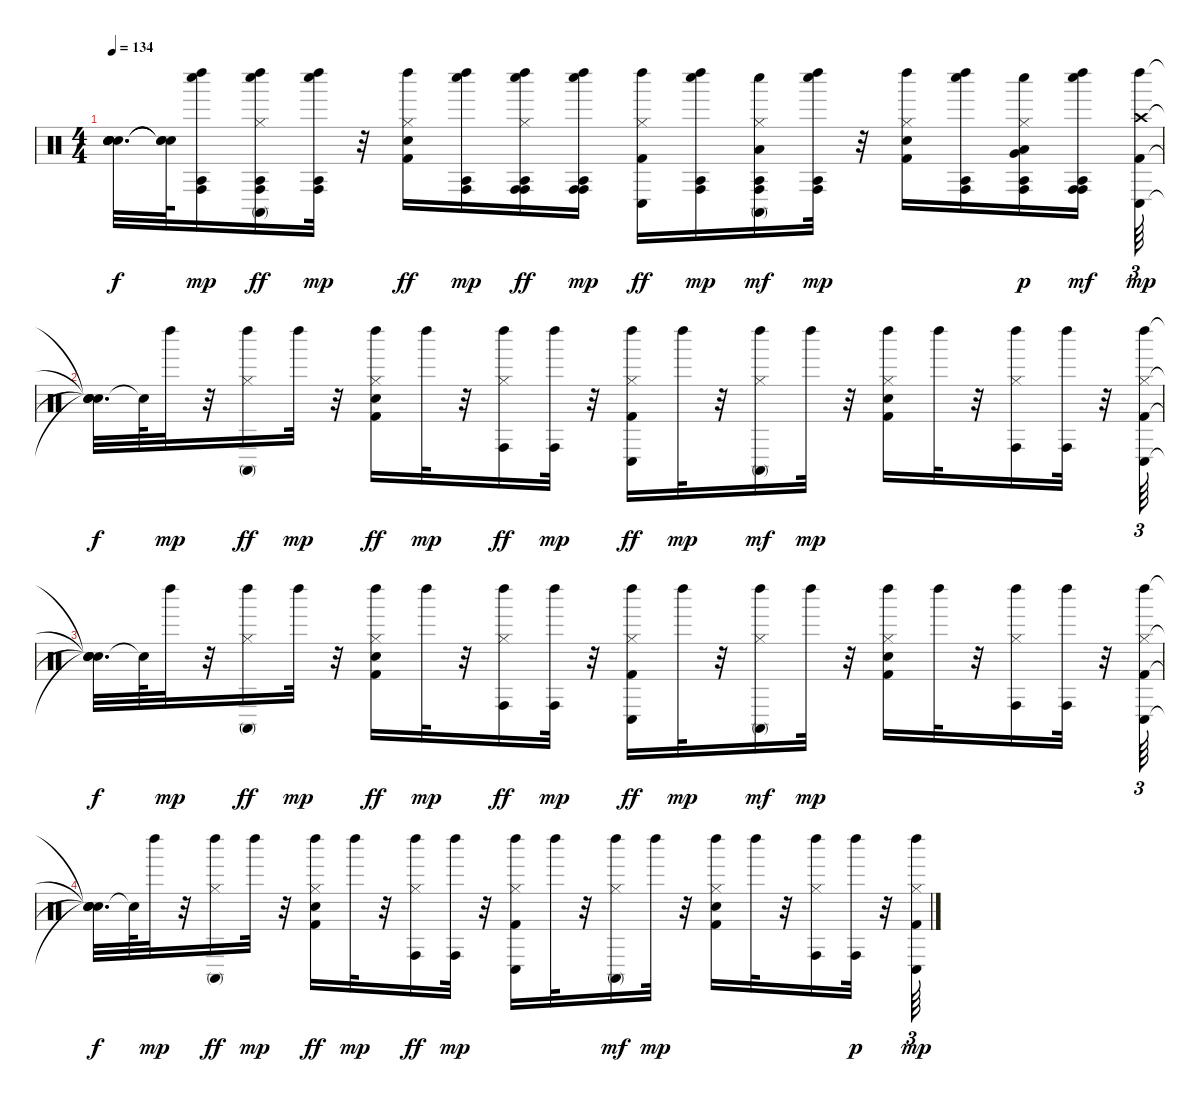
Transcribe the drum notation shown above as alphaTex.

\track "" {instrument percussion}
\staff {score}
\articulation defaults
\ts (4 4)
\tempo 134
\clef neutral
\ks c
("Snare (hit)"{t} "Snare (hit)"{t} "Snare (hit)"{t} "Snare (hit)"{t} "Snare (hit)"{t} "Snare (hit)"{t}).32{d dy f} ("Snare (hit)"{t} "Snare (hit)"{t} "Snare (hit)"{t}).64 ("Whistle low (hit)" "Agogo tow (hit)" "Conga high (hit)" "Left Maraca (hit)").16{dy mp} ("Whistle low (hit)" "Agogo tow (hit)" "Conga high (hit)" "Left Maraca (hit)" "Conga high (mute)" "Hi-Hat (closed)").16{dy ff} ("Whistle low (hit)" "Agogo tow (hit)" "Conga high (hit)" "Left Maraca (hit)").32{dy mp} r.32 ("Left Maraca (hit)" "Hi-Hat (closed)" "Snare (hit) 2" "Kick (hit) 2").16{dy ff} ("Whistle low (hit)" "Agogo tow (hit)" "Conga high (hit)" "Left Maraca (hit)").16{dy mp} ("Whistle low (hit)" "Agogo tow (hit)" "Conga high (hit)" "Left Maraca (hit)" "Conga high (hit)" "Hi-Hat (closed)").16{dy ff} ("Whistle low (hit)" "Agogo tow (hit)" "Conga high (hit)" "Conga high (hit)" "Left Maraca (hit)").16{dy mp} ("Left Maraca (hit)" "Conga low (hit)" "Hi-Hat (closed)" "Kick (hit) 2").16{dy ff} ("Conga high (hit)" "Agogo tow (hit)" "Whistle low (hit)" "Left Maraca (hit)").16{dy mp} ("Whistle low (hit)" "Agogo tow (hit)" "Conga high (hit)" "Hi-Hat (closed)" "Low Tom (hit)" "Conga high (mute)").16{dy mf} ("Whistle low (hit)" "Agogo tow (hit)" "Conga high (hit)" "Left Maraca (hit)").32{dy mp} r.32 ("Kick (hit) 2" "Snare (hit) 2" "Hi-Hat (closed)" "Left Maraca (hit)").16 ("Whistle low (hit)" "Agogo tow (hit)" "Conga high (hit)" "Left Maraca (hit)").16 ("Whistle low (hit)" "Agogo tow (hit)" "Conga high (hit)" "Low Floor Tom (hit)" "Hi-Hat (closed)" "Very Low Tom (hit)").16{dy p} ("Whistle low (hit)" "Agogo tow (hit)" "Conga high (hit)" "Left Maraca (hit)" "Conga high (hit)").16{dy mf} ("Kick (hit) 2" "Crash high (hit)" "Conga low (hit)" "Left Maraca (hit)").64{tu (3 2) dy mp} |
("Snare (hit)"{t} "Snare (hit)"{t} "Snare (hit)"{t} "Snare (hit)"{t}).32{d dy f} "Snare (hit)"{t}.64 "Left Maraca (hit)".32{dy mp} r.32 ("Left Maraca (hit)" "Conga high (mute)" "Hi-Hat (closed)").16{dy ff} "Left Maraca (hit)".32{dy mp} r.32 ("Left Maraca (hit)" "Hi-Hat (closed)" "Snare (hit) 2" "Kick (hit) 2").16{dy ff} "Left Maraca (hit)".32{dy mp} r.32 ("Left Maraca (hit)" "Conga high (hit)" "Hi-Hat (closed)").16{dy ff} ("Conga high (hit)" "Left Maraca (hit)").32{dy mp} r.32 ("Left Maraca (hit)" "Conga low (hit)" "Hi-Hat (closed)" "Kick (hit) 2").16{dy ff} "Left Maraca (hit)".32{dy mp} r.32 ("Hi-Hat (closed)" "Conga high (mute)" "Left Maraca (hit)").16{dy mf} "Left Maraca (hit)".32{dy mp} r.32 ("Kick (hit) 2" "Snare (hit) 2" "Hi-Hat (closed)" "Left Maraca (hit)").16 "Left Maraca (hit)".32 r.32 ("Hi-Hat (closed)" "Conga high (hit)" "Left Maraca (hit)").16 ("Left Maraca (hit)" "Conga high (hit)").32 r.32 ("Kick (hit) 2" "Hi-Hat (closed)" "Conga low (hit)" "Left Maraca (hit)").64{tu (3 2)} |
("Snare (hit)"{t} "Snare (hit)"{t} "Snare (hit)"{t} "Snare (hit)"{t}).32{d dy f} "Snare (hit)"{t}.64 "Left Maraca (hit)".32{dy mp} r.32 ("Left Maraca (hit)" "Conga high (mute)" "Hi-Hat (closed)").16{dy ff} "Left Maraca (hit)".32{dy mp} r.32 ("Left Maraca (hit)" "Hi-Hat (closed)" "Snare (hit) 2" "Kick (hit) 2").16{dy ff} "Left Maraca (hit)".32{dy mp} r.32 ("Left Maraca (hit)" "Conga high (hit)" "Hi-Hat (closed)").16{dy ff} ("Conga high (hit)" "Left Maraca (hit)").32{dy mp} r.32 ("Left Maraca (hit)" "Conga low (hit)" "Hi-Hat (closed)" "Kick (hit) 2").16{dy ff} "Left Maraca (hit)".32{dy mp} r.32 ("Hi-Hat (closed)" "Conga high (mute)" "Left Maraca (hit)").16{dy mf} "Left Maraca (hit)".32{dy mp} r.32 ("Kick (hit) 2" "Snare (hit) 2" "Hi-Hat (closed)" "Left Maraca (hit)").16 "Left Maraca (hit)".32 r.32 ("Hi-Hat (closed)" "Conga high (hit)" "Left Maraca (hit)").16 ("Left Maraca (hit)" "Conga high (hit)").32 r.32 ("Left Maraca (hit)" "Conga low (hit)" "Hi-Hat (closed)" "Kick (hit) 2").64{tu (3 2)} |
("Snare (hit)"{t} "Snare (hit)"{t} "Snare (hit)"{t} "Snare (hit)"{t}).32{d dy f} "Snare (hit)"{t}.64 "Left Maraca (hit)".32{dy mp} r.32 ("Left Maraca (hit)" "Conga high (mute)" "Hi-Hat (closed)").16{dy ff} "Left Maraca (hit)".32{dy mp} r.32 ("Left Maraca (hit)" "Hi-Hat (closed)" "Snare (hit) 2" "Kick (hit) 2").16{dy ff} "Left Maraca (hit)".32{dy mp} r.32 ("Left Maraca (hit)" "Conga high (hit)" "Hi-Hat (closed)").16{dy ff} ("Conga high (hit)" "Left Maraca (hit)").32{dy mp} r.32 ("Kick (hit) 2" "Hi-Hat (closed)" "Conga low (hit)" "Left Maraca (hit)").16 "Left Maraca (hit)".32 r.32 ("Hi-Hat (closed)" "Conga high (mute)" "Left Maraca (hit)").16{dy mf} "Left Maraca (hit)".32{dy mp} r.32 ("Kick (hit) 2" "Snare (hit) 2" "Hi-Hat (closed)" "Left Maraca (hit)").16 "Left Maraca (hit)".32 r.32 ("Hi-Hat (closed)" "Conga high (hit)" "Left Maraca (hit)").16 ("Left Maraca (hit)" "Conga high (hit)").32{dy p} r.32 ("Left Maraca (hit)" "Conga low (hit)" "Hi-Hat (closed)" "Kick (hit) 2").64{tu (3 2) dy mp}
